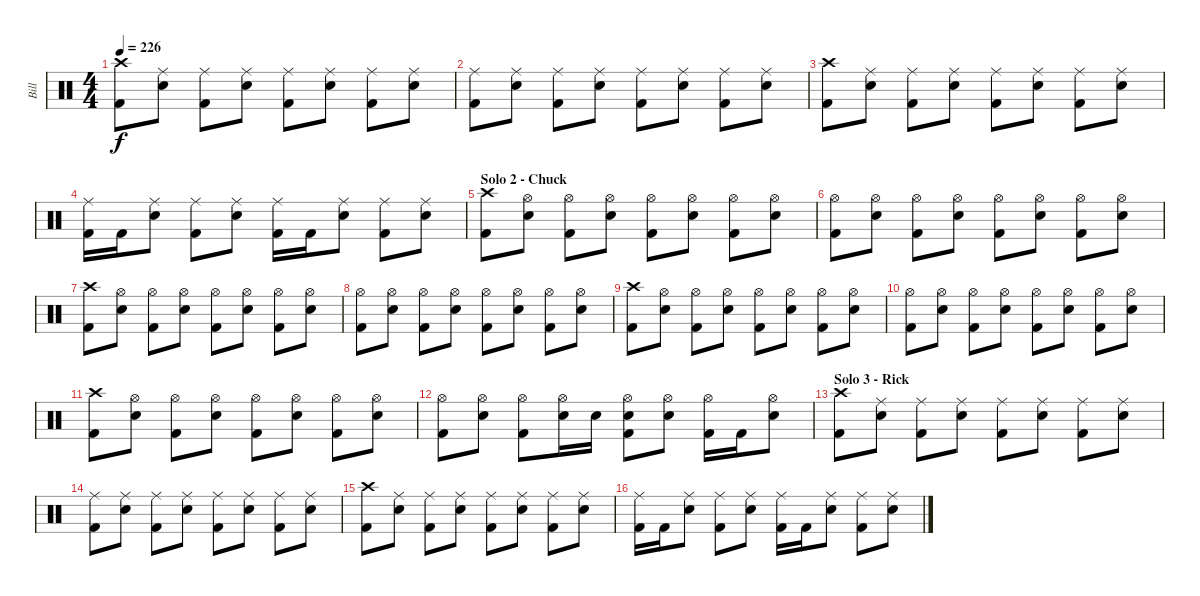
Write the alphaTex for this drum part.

\track ("Bill" "Bill") {instrument percussion}
\staff {score}
\articulation defaults
\ts (4 4)
\tempo 226
\clef neutral
\ks c
("Crash high (hit)" "Kick (hit) 2").8{dy f} ("Ride (middle)" "Electric Snare (hit)").8 ("Ride (middle)" "Kick (hit) 2").8 ("Ride (middle)" "Electric Snare (hit)").8 ("Ride (middle)" "Kick (hit) 2").8 ("Ride (middle)" "Electric Snare (hit)").8 ("Ride (middle)" "Kick (hit) 2").8 ("Ride (middle)" "Electric Snare (hit)").8 |
("Ride (middle)" "Kick (hit) 2").8 ("Ride (middle)" "Electric Snare (hit)").8 ("Ride (middle)" "Kick (hit) 2").8 ("Ride (middle)" "Electric Snare (hit)").8 ("Ride (middle)" "Kick (hit) 2").8 ("Ride (middle)" "Electric Snare (hit)").8 ("Ride (middle)" "Kick (hit) 2").8 ("Ride (middle)" "Electric Snare (hit)").8 |
("Crash high (hit)" "Kick (hit) 2").8 ("Ride (middle)" "Electric Snare (hit)").8 ("Ride (middle)" "Kick (hit) 2").8 ("Ride (middle)" "Electric Snare (hit)").8 ("Ride (middle)" "Kick (hit) 2").8 ("Ride (middle)" "Electric Snare (hit)").8 ("Ride (middle)" "Kick (hit) 2").8 ("Ride (middle)" "Electric Snare (hit)").8 |
("Ride (middle)" "Kick (hit) 2").16 "Kick (hit) 2".16 ("Ride (middle)" "Electric Snare (hit)").8 ("Ride (middle)" "Kick (hit) 2").8 ("Ride (middle)" "Electric Snare (hit)").8 ("Ride (middle)" "Kick (hit) 2").16 "Kick (hit) 2".16 ("Ride (middle)" "Electric Snare (hit)").8 ("Ride (middle)" "Kick (hit) 2").8 ("Ride (middle)" "Electric Snare (hit)").8 |
\section ("" "Solo 2 - Chuck")
("Crash high (hit)" "Kick (hit) 2").8 ("Hi-Hat (open)" "Electric Snare (hit)").8 ("Hi-Hat (open)" "Kick (hit) 2").8 ("Hi-Hat (open)" "Electric Snare (hit)").8 ("Hi-Hat (open)" "Kick (hit) 2").8 ("Hi-Hat (open)" "Electric Snare (hit)").8 ("Hi-Hat (open)" "Kick (hit) 2").8 ("Hi-Hat (open)" "Electric Snare (hit)").8 |
("Hi-Hat (open)" "Kick (hit) 2").8 ("Hi-Hat (open)" "Electric Snare (hit)").8 ("Hi-Hat (open)" "Kick (hit) 2").8 ("Hi-Hat (open)" "Electric Snare (hit)").8 ("Hi-Hat (open)" "Kick (hit) 2").8 ("Hi-Hat (open)" "Electric Snare (hit)").8 ("Hi-Hat (open)" "Kick (hit) 2").8 ("Hi-Hat (open)" "Electric Snare (hit)").8 |
("Crash high (hit)" "Kick (hit) 2").8 ("Hi-Hat (open)" "Electric Snare (hit)").8 ("Hi-Hat (open)" "Kick (hit) 2").8 ("Hi-Hat (open)" "Electric Snare (hit)").8 ("Hi-Hat (open)" "Kick (hit) 2").8 ("Hi-Hat (open)" "Electric Snare (hit)").8 ("Hi-Hat (open)" "Kick (hit) 2").8 ("Hi-Hat (open)" "Electric Snare (hit)").8 |
("Hi-Hat (open)" "Kick (hit) 2").8 ("Hi-Hat (open)" "Electric Snare (hit)").8 ("Hi-Hat (open)" "Kick (hit) 2").8 ("Hi-Hat (open)" "Electric Snare (hit)").8 ("Hi-Hat (open)" "Kick (hit) 2").8 ("Hi-Hat (open)" "Electric Snare (hit)").8 ("Hi-Hat (open)" "Kick (hit) 2").8 ("Hi-Hat (open)" "Electric Snare (hit)").8 |
("Crash high (hit)" "Kick (hit) 2").8 ("Hi-Hat (open)" "Electric Snare (hit)").8 ("Hi-Hat (open)" "Kick (hit) 2").8 ("Hi-Hat (open)" "Electric Snare (hit)").8 ("Hi-Hat (open)" "Kick (hit) 2").8 ("Hi-Hat (open)" "Electric Snare (hit)").8 ("Hi-Hat (open)" "Kick (hit) 2").8 ("Hi-Hat (open)" "Electric Snare (hit)").8 |
("Hi-Hat (open)" "Kick (hit) 2").8 ("Hi-Hat (open)" "Electric Snare (hit)").8 ("Hi-Hat (open)" "Kick (hit) 2").8 ("Hi-Hat (open)" "Electric Snare (hit)").8 ("Hi-Hat (open)" "Kick (hit) 2").8 ("Hi-Hat (open)" "Electric Snare (hit)").8 ("Hi-Hat (open)" "Kick (hit) 2").8 ("Hi-Hat (open)" "Electric Snare (hit)").8 |
("Crash high (hit)" "Kick (hit) 2").8 ("Hi-Hat (open)" "Electric Snare (hit)").8 ("Hi-Hat (open)" "Kick (hit) 2").8 ("Hi-Hat (open)" "Electric Snare (hit)").8 ("Hi-Hat (open)" "Kick (hit) 2").8 ("Hi-Hat (open)" "Electric Snare (hit)").8 ("Hi-Hat (open)" "Kick (hit) 2").8 ("Hi-Hat (open)" "Electric Snare (hit)").8 |
("Hi-Hat (open)" "Kick (hit) 2").8 ("Hi-Hat (open)" "Electric Snare (hit)").8 ("Hi-Hat (open)" "Kick (hit) 2").8 ("Hi-Hat (open)" "Electric Snare (hit)").16 "Electric Snare (hit)".16 ("Hi-Hat (open)" "Electric Snare (hit)" "Kick (hit) 2").8 ("Hi-Hat (open)" "Electric Snare (hit)").8 ("Hi-Hat (open)" "Kick (hit) 2").16 "Kick (hit) 2".16 ("Hi-Hat (open)" "Electric Snare (hit)").8 |
\section ("" "Solo 3 - Rick")
("Crash high (hit)" "Kick (hit) 2").8 ("Ride (middle)" "Electric Snare (hit)").8 ("Ride (middle)" "Kick (hit) 2").8 ("Ride (middle)" "Electric Snare (hit)").8 ("Ride (middle)" "Kick (hit) 2").8 ("Ride (middle)" "Electric Snare (hit)").8 ("Ride (middle)" "Kick (hit) 2").8 ("Ride (middle)" "Electric Snare (hit)").8 |
("Ride (middle)" "Kick (hit) 2").8 ("Ride (middle)" "Electric Snare (hit)").8 ("Ride (middle)" "Kick (hit) 2").8 ("Ride (middle)" "Electric Snare (hit)").8 ("Ride (middle)" "Kick (hit) 2").8 ("Ride (middle)" "Electric Snare (hit)").8 ("Ride (middle)" "Kick (hit) 2").8 ("Ride (middle)" "Electric Snare (hit)").8 |
("Crash high (hit)" "Kick (hit) 2").8 ("Ride (middle)" "Electric Snare (hit)").8 ("Ride (middle)" "Kick (hit) 2").8 ("Ride (middle)" "Electric Snare (hit)").8 ("Ride (middle)" "Kick (hit) 2").8 ("Ride (middle)" "Electric Snare (hit)").8 ("Ride (middle)" "Kick (hit) 2").8 ("Ride (middle)" "Electric Snare (hit)").8 |
("Ride (middle)" "Kick (hit) 2").16 "Kick (hit) 2".16 ("Ride (middle)" "Electric Snare (hit)").8 ("Ride (middle)" "Kick (hit) 2").8 ("Ride (middle)" "Electric Snare (hit)").8 ("Ride (middle)" "Kick (hit) 2").16 "Kick (hit) 2".16 ("Ride (middle)" "Electric Snare (hit)").8 ("Ride (middle)" "Kick (hit) 2").8 ("Ride (middle)" "Electric Snare (hit)").8
